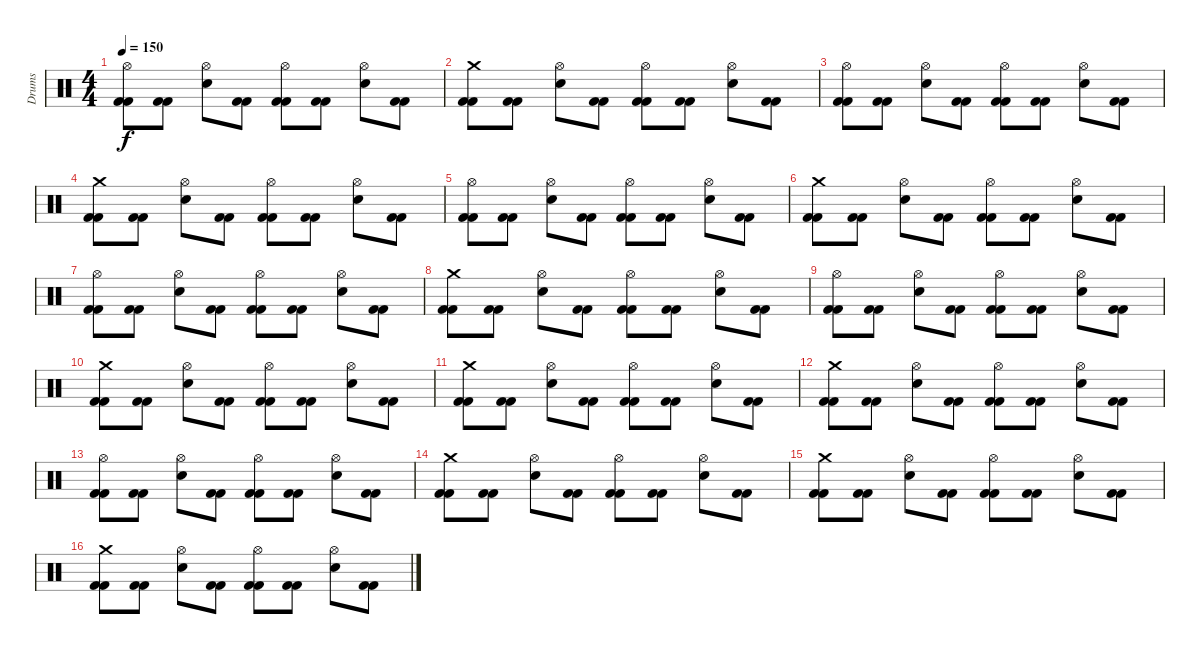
\track ("Drums" "Drums") {instrument percussion}
\staff {score}
\articulation defaults
\ts (4 4)
\tempo 150
\clef neutral
\ks c
("Hi-Hat (open)" "Kick (hit) 2" "Kick (hit) 2").8{dy f} ("Kick (hit) 2" "Kick (hit) 2").8 ("Hi-Hat (open)" "Electric Snare (hit)").8 ("Kick (hit) 2" "Kick (hit) 2").8 ("Hi-Hat (open)" "Kick (hit) 2" "Kick (hit) 2").8 ("Kick (hit) 2" "Kick (hit) 2").8 ("Electric Snare (hit)" "Hi-Hat (open)").8 ("Kick (hit) 2" "Kick (hit) 2").8 |
("Crash medium (hit)" "Kick (hit) 2" "Kick (hit) 2").8 ("Kick (hit) 2" "Kick (hit) 2").8 ("Hi-Hat (open)" "Electric Snare (hit)").8 ("Kick (hit) 2" "Kick (hit) 2").8 ("Hi-Hat (open)" "Kick (hit) 2" "Kick (hit) 2").8 ("Kick (hit) 2" "Kick (hit) 2").8 ("Electric Snare (hit)" "Hi-Hat (open)").8 ("Kick (hit) 2" "Kick (hit) 2").8 |
("Hi-Hat (open)" "Kick (hit) 2" "Kick (hit) 2").8 ("Kick (hit) 2" "Kick (hit) 2").8 ("Hi-Hat (open)" "Electric Snare (hit)").8 ("Kick (hit) 2" "Kick (hit) 2").8 ("Hi-Hat (open)" "Kick (hit) 2" "Kick (hit) 2").8 ("Kick (hit) 2" "Kick (hit) 2").8 ("Electric Snare (hit)" "Hi-Hat (open)").8 ("Kick (hit) 2" "Kick (hit) 2").8 |
("Crash medium (hit)" "Kick (hit) 2" "Kick (hit) 2").8 ("Kick (hit) 2" "Kick (hit) 2").8 ("Hi-Hat (open)" "Electric Snare (hit)").8 ("Kick (hit) 2" "Kick (hit) 2").8 ("Hi-Hat (open)" "Kick (hit) 2" "Kick (hit) 2").8 ("Kick (hit) 2" "Kick (hit) 2").8 ("Electric Snare (hit)" "Hi-Hat (open)").8 ("Kick (hit) 2" "Kick (hit) 2").8 |
("Hi-Hat (open)" "Kick (hit) 2" "Kick (hit) 2").8 ("Kick (hit) 2" "Kick (hit) 2").8 ("Hi-Hat (open)" "Electric Snare (hit)").8 ("Kick (hit) 2" "Kick (hit) 2").8 ("Hi-Hat (open)" "Kick (hit) 2" "Kick (hit) 2").8 ("Kick (hit) 2" "Kick (hit) 2").8 ("Electric Snare (hit)" "Hi-Hat (open)").8 ("Kick (hit) 2" "Kick (hit) 2").8 |
("Crash medium (hit)" "Kick (hit) 2" "Kick (hit) 2").8 ("Kick (hit) 2" "Kick (hit) 2").8 ("Hi-Hat (open)" "Electric Snare (hit)").8 ("Kick (hit) 2" "Kick (hit) 2").8 ("Hi-Hat (open)" "Kick (hit) 2" "Kick (hit) 2").8 ("Kick (hit) 2" "Kick (hit) 2").8 ("Electric Snare (hit)" "Hi-Hat (open)").8 ("Kick (hit) 2" "Kick (hit) 2").8 |
("Hi-Hat (open)" "Kick (hit) 2" "Kick (hit) 2").8 ("Kick (hit) 2" "Kick (hit) 2").8 ("Hi-Hat (open)" "Electric Snare (hit)").8 ("Kick (hit) 2" "Kick (hit) 2").8 ("Hi-Hat (open)" "Kick (hit) 2" "Kick (hit) 2").8 ("Kick (hit) 2" "Kick (hit) 2").8 ("Electric Snare (hit)" "Hi-Hat (open)").8 ("Kick (hit) 2" "Kick (hit) 2").8 |
("Crash medium (hit)" "Kick (hit) 2" "Kick (hit) 2").8 ("Kick (hit) 2" "Kick (hit) 2").8 ("Hi-Hat (open)" "Electric Snare (hit)").8 ("Kick (hit) 2" "Kick (hit) 2").8 ("Hi-Hat (open)" "Kick (hit) 2" "Kick (hit) 2").8 ("Kick (hit) 2" "Kick (hit) 2").8 ("Electric Snare (hit)" "Hi-Hat (open)").8 ("Kick (hit) 2" "Kick (hit) 2").8 |
("Hi-Hat (open)" "Kick (hit) 2" "Kick (hit) 2").8 ("Kick (hit) 2" "Kick (hit) 2").8 ("Hi-Hat (open)" "Electric Snare (hit)").8 ("Kick (hit) 2" "Kick (hit) 2").8 ("Hi-Hat (open)" "Kick (hit) 2" "Kick (hit) 2").8 ("Kick (hit) 2" "Kick (hit) 2").8 ("Electric Snare (hit)" "Hi-Hat (open)").8 ("Kick (hit) 2" "Kick (hit) 2").8 |
("Crash medium (hit)" "Kick (hit) 2" "Kick (hit) 2").8 ("Kick (hit) 2" "Kick (hit) 2").8 ("Hi-Hat (open)" "Electric Snare (hit)").8 ("Kick (hit) 2" "Kick (hit) 2").8 ("Hi-Hat (open)" "Kick (hit) 2" "Kick (hit) 2").8 ("Kick (hit) 2" "Kick (hit) 2").8 ("Electric Snare (hit)" "Hi-Hat (open)").8 ("Kick (hit) 2" "Kick (hit) 2").8 |
("Crash medium (hit)" "Kick (hit) 2" "Kick (hit) 2").8 ("Kick (hit) 2" "Kick (hit) 2").8 ("Hi-Hat (open)" "Electric Snare (hit)").8 ("Kick (hit) 2" "Kick (hit) 2").8 ("Hi-Hat (open)" "Kick (hit) 2" "Kick (hit) 2").8 ("Kick (hit) 2" "Kick (hit) 2").8 ("Electric Snare (hit)" "Hi-Hat (open)").8 ("Kick (hit) 2" "Kick (hit) 2").8 |
("Crash medium (hit)" "Kick (hit) 2" "Kick (hit) 2").8 ("Kick (hit) 2" "Kick (hit) 2").8 ("Hi-Hat (open)" "Electric Snare (hit)").8 ("Kick (hit) 2" "Kick (hit) 2").8 ("Hi-Hat (open)" "Kick (hit) 2" "Kick (hit) 2").8 ("Kick (hit) 2" "Kick (hit) 2").8 ("Electric Snare (hit)" "Hi-Hat (open)").8 ("Kick (hit) 2" "Kick (hit) 2").8 |
("Hi-Hat (open)" "Kick (hit) 2" "Kick (hit) 2").8 ("Kick (hit) 2" "Kick (hit) 2").8 ("Hi-Hat (open)" "Electric Snare (hit)").8 ("Kick (hit) 2" "Kick (hit) 2").8 ("Hi-Hat (open)" "Kick (hit) 2" "Kick (hit) 2").8 ("Kick (hit) 2" "Kick (hit) 2").8 ("Electric Snare (hit)" "Hi-Hat (open)").8 ("Kick (hit) 2" "Kick (hit) 2").8 |
("Crash medium (hit)" "Kick (hit) 2" "Kick (hit) 2").8 ("Kick (hit) 2" "Kick (hit) 2").8 ("Hi-Hat (open)" "Electric Snare (hit)").8 ("Kick (hit) 2" "Kick (hit) 2").8 ("Hi-Hat (open)" "Kick (hit) 2" "Kick (hit) 2").8 ("Kick (hit) 2" "Kick (hit) 2").8 ("Electric Snare (hit)" "Hi-Hat (open)").8 ("Kick (hit) 2" "Kick (hit) 2").8 |
("Crash medium (hit)" "Kick (hit) 2" "Kick (hit) 2").8 ("Kick (hit) 2" "Kick (hit) 2").8 ("Hi-Hat (open)" "Electric Snare (hit)").8 ("Kick (hit) 2" "Kick (hit) 2").8 ("Hi-Hat (open)" "Kick (hit) 2" "Kick (hit) 2").8 ("Kick (hit) 2" "Kick (hit) 2").8 ("Electric Snare (hit)" "Hi-Hat (open)").8 ("Kick (hit) 2" "Kick (hit) 2").8 |
("Crash medium (hit)" "Kick (hit) 2" "Kick (hit) 2").8 ("Kick (hit) 2" "Kick (hit) 2").8 ("Hi-Hat (open)" "Electric Snare (hit)").8 ("Kick (hit) 2" "Kick (hit) 2").8 ("Hi-Hat (open)" "Kick (hit) 2" "Kick (hit) 2").8 ("Kick (hit) 2" "Kick (hit) 2").8 ("Electric Snare (hit)" "Hi-Hat (open)").8 ("Kick (hit) 2" "Kick (hit) 2").8
